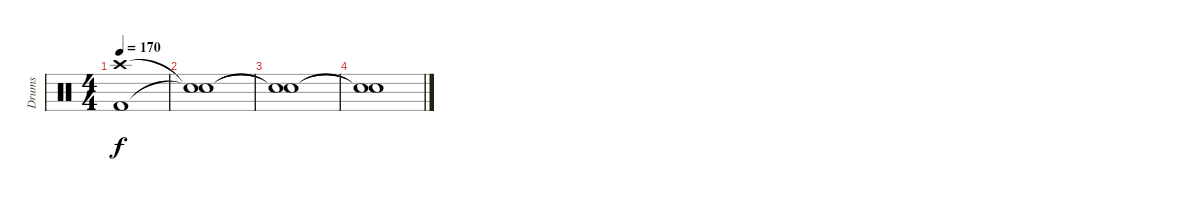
\track ("Drums" "Drums") {instrument percussion}
\staff {score}
\articulation defaults
\ts (4 4)
\tempo 170
\clef neutral
\ks c
("Crash high (hit)" "Kick (hit) 2").1{dy f} |
("Snare (hit)"{t} "Snare (hit)"{t}).1 |
("Snare (hit)"{t} "Snare (hit)"{t}).1 |
("Snare (hit)"{t} "Snare (hit)"{t}).1
